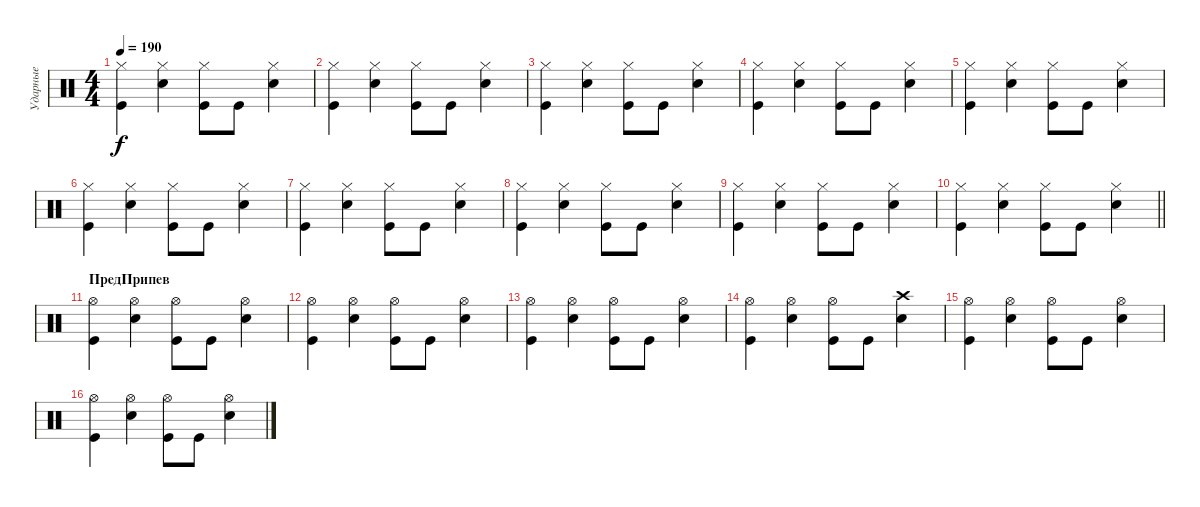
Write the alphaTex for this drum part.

\track ("Ударные" "Ударные") {instrument percussion}
\staff {score}
\articulation defaults
\ts (4 4)
\tempo 190
\clef neutral
\ks c
("Hi-Hat (closed)" "Kick (hit)").4{dy f} ("Hi-Hat (closed)" "Snare (hit) 2").4 ("Hi-Hat (closed)" "Kick (hit)").8 "Kick (hit)".8 ("Hi-Hat (closed)" "Snare (hit) 2").4 |
("Hi-Hat (closed)" "Kick (hit)").4 ("Hi-Hat (closed)" "Snare (hit) 2").4 ("Hi-Hat (closed)" "Kick (hit)").8 "Kick (hit)".8 ("Hi-Hat (closed)" "Snare (hit) 2").4 |
("Hi-Hat (closed)" "Kick (hit)").4 ("Hi-Hat (closed)" "Snare (hit) 2").4 ("Hi-Hat (closed)" "Kick (hit)").8 "Kick (hit)".8 ("Hi-Hat (closed)" "Snare (hit) 2").4 |
("Hi-Hat (closed)" "Kick (hit)").4 ("Hi-Hat (closed)" "Snare (hit) 2").4 ("Hi-Hat (closed)" "Kick (hit)").8 "Kick (hit)".8 ("Hi-Hat (closed)" "Snare (hit) 2").4 |
("Hi-Hat (closed)" "Kick (hit)").4 ("Hi-Hat (closed)" "Snare (hit) 2").4 ("Hi-Hat (closed)" "Kick (hit)").8 "Kick (hit)".8 ("Hi-Hat (closed)" "Snare (hit) 2").4 |
("Hi-Hat (closed)" "Kick (hit)").4 ("Hi-Hat (closed)" "Snare (hit) 2").4 ("Hi-Hat (closed)" "Kick (hit)").8 "Kick (hit)".8 ("Hi-Hat (closed)" "Snare (hit) 2").4 |
("Hi-Hat (closed)" "Kick (hit)").4 ("Hi-Hat (closed)" "Snare (hit) 2").4 ("Hi-Hat (closed)" "Kick (hit)").8 "Kick (hit)".8 ("Hi-Hat (closed)" "Snare (hit) 2").4 |
("Hi-Hat (closed)" "Kick (hit)").4 ("Hi-Hat (closed)" "Snare (hit) 2").4 ("Hi-Hat (closed)" "Kick (hit)").8 "Kick (hit)".8 ("Hi-Hat (closed)" "Snare (hit) 2").4 |
("Hi-Hat (closed)" "Kick (hit)").4 ("Hi-Hat (closed)" "Snare (hit) 2").4 ("Hi-Hat (closed)" "Kick (hit)").8 "Kick (hit)".8 ("Hi-Hat (closed)" "Snare (hit) 2").4 |
\barLineRight lightlight
("Hi-Hat (closed)" "Kick (hit)").4 ("Hi-Hat (closed)" "Snare (hit) 2").4 ("Hi-Hat (closed)" "Kick (hit)").8 "Kick (hit)".8 ("Hi-Hat (closed)" "Snare (hit) 2").4 |
\section ("" "ПредПрипев")
("Hi-Hat (open)" "Kick (hit)").4 ("Hi-Hat (open)" "Snare (hit) 2").4 ("Hi-Hat (open)" "Kick (hit)").8 "Kick (hit)".8 ("Hi-Hat (open)" "Snare (hit) 2").4 |
("Hi-Hat (open)" "Kick (hit)").4 ("Hi-Hat (open)" "Snare (hit) 2").4 ("Hi-Hat (open)" "Kick (hit)").8 "Kick (hit)".8 ("Hi-Hat (open)" "Snare (hit) 2").4 |
("Hi-Hat (open)" "Kick (hit)").4 ("Hi-Hat (open)" "Snare (hit) 2").4 ("Hi-Hat (open)" "Kick (hit)").8 "Kick (hit)".8 ("Hi-Hat (open)" "Snare (hit) 2").4 |
("Hi-Hat (open)" "Kick (hit)").4 ("Hi-Hat (open)" "Snare (hit) 2").4 ("Hi-Hat (open)" "Kick (hit)").8 "Kick (hit)".8 ("Crash high (hit)" "Snare (hit) 2").4 |
("Hi-Hat (open)" "Kick (hit)").4 ("Hi-Hat (open)" "Snare (hit) 2").4 ("Hi-Hat (open)" "Kick (hit)").8 "Kick (hit)".8 ("Hi-Hat (open)" "Snare (hit) 2").4 |
("Hi-Hat (open)" "Kick (hit)").4 ("Hi-Hat (open)" "Snare (hit) 2").4 ("Hi-Hat (open)" "Kick (hit)").8 "Kick (hit)".8 ("Hi-Hat (open)" "Snare (hit) 2").4
